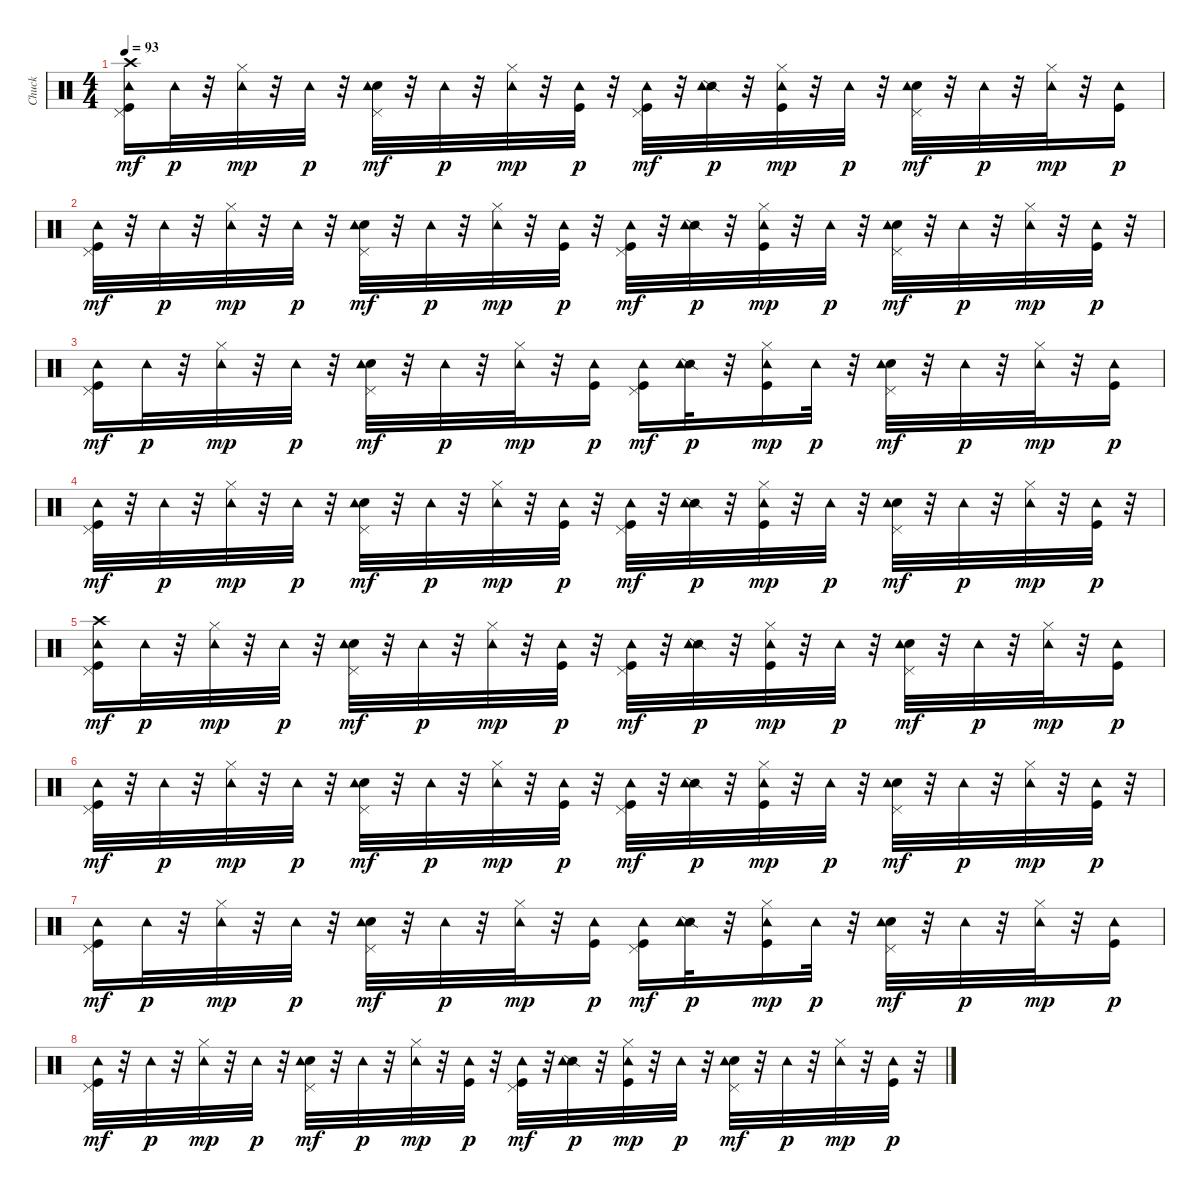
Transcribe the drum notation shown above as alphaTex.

\track ("Chuck" "Chuck") {instrument percussion}
\staff {score}
\articulation defaults
\ts (4 4)
\tempo 93
\clef neutral
\ks c
("Kick (hit)" "Pedal Hi-Hat (hit)" "Crash high (hit)" "Tambourine (hit)").16{dy mf} "Tambourine (hit)".32{dy p} r.32 ("Hi-Hat (closed)" "Tambourine (hit)").32{dy mp} r.32 "Tambourine (hit)".32{dy p} r.32 ("Electric Snare (hit)" "Pedal Hi-Hat (hit)" "Tambourine (hit)").32{dy mf} r.32 "Tambourine (hit)".32{dy p} r.32 ("Hi-Hat (closed)" "Tambourine (hit)").32{dy mp} r.32 ("Kick (hit)" "Tambourine (hit)").32{dy p} r.32 ("Kick (hit)" "Pedal Hi-Hat (hit)" "Tambourine (hit)").32{dy mf} r.32 ("Snare (side stick) 2" "Tambourine (hit)").32{dy p} r.32 ("Kick (hit)" "Hi-Hat (closed)" "Tambourine (hit)").32{dy mp} r.32 "Tambourine (hit)".32{dy p} r.32 ("Electric Snare (hit)" "Pedal Hi-Hat (hit)" "Tambourine (hit)").32{dy mf} r.32 "Tambourine (hit)".32{dy p} r.32 ("Hi-Hat (closed)" "Tambourine (hit)").32{dy mp} r.32 ("Kick (hit)" "Tambourine (hit)").16{dy p} |
("Kick (hit)" "Pedal Hi-Hat (hit)" "Tambourine (hit)").32{dy mf} r.32 "Tambourine (hit)".32{dy p} r.32 ("Hi-Hat (closed)" "Tambourine (hit)").32{dy mp} r.32 "Tambourine (hit)".32{dy p} r.32 ("Electric Snare (hit)" "Pedal Hi-Hat (hit)" "Tambourine (hit)").32{dy mf} r.32 "Tambourine (hit)".32{dy p} r.32 ("Hi-Hat (closed)" "Tambourine (hit)").32{dy mp} r.32 ("Kick (hit)" "Tambourine (hit)").32{dy p} r.32 ("Kick (hit)" "Pedal Hi-Hat (hit)" "Tambourine (hit)").32{dy mf} r.32 ("Snare (side stick) 2" "Tambourine (hit)").32{dy p} r.32 ("Kick (hit)" "Hi-Hat (closed)" "Tambourine (hit)").32{dy mp} r.32 "Tambourine (hit)".32{dy p} r.32 ("Electric Snare (hit)" "Pedal Hi-Hat (hit)" "Tambourine (hit)").32{dy mf} r.32 "Tambourine (hit)".32{dy p} r.32 ("Hi-Hat (closed)" "Tambourine (hit)").32{dy mp} r.32 ("Kick (hit)" "Tambourine (hit)").32{dy p} r.32 |
("Kick (hit)" "Pedal Hi-Hat (hit)" "Tambourine (hit)").16{dy mf} "Tambourine (hit)".32{dy p} r.32 ("Hi-Hat (closed)" "Tambourine (hit)").32{dy mp} r.32 "Tambourine (hit)".32{dy p} r.32 ("Electric Snare (hit)" "Pedal Hi-Hat (hit)" "Tambourine (hit)").32{dy mf} r.32 "Tambourine (hit)".32{dy p} r.32 ("Hi-Hat (closed)" "Tambourine (hit)").32{dy mp} r.32 ("Kick (hit)" "Tambourine (hit)").16{dy p} ("Kick (hit)" "Pedal Hi-Hat (hit)" "Tambourine (hit)").16{dy mf} ("Snare (side stick) 2" "Tambourine (hit)").32{dy p} r.32 ("Kick (hit)" "Hi-Hat (closed)" "Tambourine (hit)").16{dy mp} "Tambourine (hit)".32{dy p} r.32 ("Electric Snare (hit)" "Pedal Hi-Hat (hit)" "Tambourine (hit)").32{dy mf} r.32 "Tambourine (hit)".32{dy p} r.32 ("Hi-Hat (closed)" "Tambourine (hit)").32{dy mp} r.32 ("Kick (hit)" "Tambourine (hit)").16{dy p} |
("Kick (hit)" "Pedal Hi-Hat (hit)" "Tambourine (hit)").32{dy mf} r.32 "Tambourine (hit)".32{dy p} r.32 ("Hi-Hat (closed)" "Tambourine (hit)").32{dy mp} r.32 "Tambourine (hit)".32{dy p} r.32 ("Electric Snare (hit)" "Pedal Hi-Hat (hit)" "Tambourine (hit)").32{dy mf} r.32 "Tambourine (hit)".32{dy p} r.32 ("Hi-Hat (closed)" "Tambourine (hit)").32{dy mp} r.32 ("Kick (hit)" "Tambourine (hit)").32{dy p} r.32 ("Kick (hit)" "Pedal Hi-Hat (hit)" "Tambourine (hit)").32{dy mf} r.32 ("Snare (side stick) 2" "Tambourine (hit)").32{dy p} r.32 ("Kick (hit)" "Hi-Hat (closed)" "Tambourine (hit)").32{dy mp} r.32 "Tambourine (hit)".32{dy p} r.32 ("Electric Snare (hit)" "Pedal Hi-Hat (hit)" "Tambourine (hit)").32{dy mf} r.32 "Tambourine (hit)".32{dy p} r.32 ("Hi-Hat (closed)" "Tambourine (hit)").32{dy mp} r.32 ("Kick (hit)" "Tambourine (hit)").32{dy p} r.32 |
("Kick (hit)" "Pedal Hi-Hat (hit)" "Crash high (hit)" "Tambourine (hit)").16{dy mf} "Tambourine (hit)".32{dy p} r.32 ("Hi-Hat (closed)" "Tambourine (hit)").32{dy mp} r.32 "Tambourine (hit)".32{dy p} r.32 ("Electric Snare (hit)" "Pedal Hi-Hat (hit)" "Tambourine (hit)").32{dy mf} r.32 "Tambourine (hit)".32{dy p} r.32 ("Hi-Hat (closed)" "Tambourine (hit)").32{dy mp} r.32 ("Kick (hit)" "Tambourine (hit)").32{dy p} r.32 ("Kick (hit)" "Pedal Hi-Hat (hit)" "Tambourine (hit)").32{dy mf} r.32 ("Snare (side stick) 2" "Tambourine (hit)").32{dy p} r.32 ("Kick (hit)" "Hi-Hat (closed)" "Tambourine (hit)").32{dy mp} r.32 "Tambourine (hit)".32{dy p} r.32 ("Electric Snare (hit)" "Pedal Hi-Hat (hit)" "Tambourine (hit)").32{dy mf} r.32 "Tambourine (hit)".32{dy p} r.32 ("Hi-Hat (closed)" "Tambourine (hit)").32{dy mp} r.32 ("Kick (hit)" "Tambourine (hit)").16{dy p} |
("Kick (hit)" "Pedal Hi-Hat (hit)" "Tambourine (hit)").32{dy mf} r.32 "Tambourine (hit)".32{dy p} r.32 ("Hi-Hat (closed)" "Tambourine (hit)").32{dy mp} r.32 "Tambourine (hit)".32{dy p} r.32 ("Electric Snare (hit)" "Pedal Hi-Hat (hit)" "Tambourine (hit)").32{dy mf} r.32 "Tambourine (hit)".32{dy p} r.32 ("Hi-Hat (closed)" "Tambourine (hit)").32{dy mp} r.32 ("Kick (hit)" "Tambourine (hit)").32{dy p} r.32 ("Kick (hit)" "Pedal Hi-Hat (hit)" "Tambourine (hit)").32{dy mf} r.32 ("Snare (side stick) 2" "Tambourine (hit)").32{dy p} r.32 ("Kick (hit)" "Hi-Hat (closed)" "Tambourine (hit)").32{dy mp} r.32 "Tambourine (hit)".32{dy p} r.32 ("Electric Snare (hit)" "Pedal Hi-Hat (hit)" "Tambourine (hit)").32{dy mf} r.32 "Tambourine (hit)".32{dy p} r.32 ("Hi-Hat (closed)" "Tambourine (hit)").32{dy mp} r.32 ("Kick (hit)" "Tambourine (hit)").32{dy p} r.32 |
("Kick (hit)" "Pedal Hi-Hat (hit)" "Tambourine (hit)").16{dy mf} "Tambourine (hit)".32{dy p} r.32 ("Hi-Hat (closed)" "Tambourine (hit)").32{dy mp} r.32 "Tambourine (hit)".32{dy p} r.32 ("Electric Snare (hit)" "Pedal Hi-Hat (hit)" "Tambourine (hit)").32{dy mf} r.32 "Tambourine (hit)".32{dy p} r.32 ("Hi-Hat (closed)" "Tambourine (hit)").32{dy mp} r.32 ("Kick (hit)" "Tambourine (hit)").16{dy p} ("Kick (hit)" "Pedal Hi-Hat (hit)" "Tambourine (hit)").16{dy mf} ("Snare (side stick) 2" "Tambourine (hit)").32{dy p} r.32 ("Kick (hit)" "Hi-Hat (closed)" "Tambourine (hit)").16{dy mp} "Tambourine (hit)".32{dy p} r.32 ("Electric Snare (hit)" "Pedal Hi-Hat (hit)" "Tambourine (hit)").32{dy mf} r.32 "Tambourine (hit)".32{dy p} r.32 ("Hi-Hat (closed)" "Tambourine (hit)").32{dy mp} r.32 ("Kick (hit)" "Tambourine (hit)").16{dy p} |
("Kick (hit)" "Pedal Hi-Hat (hit)" "Tambourine (hit)").32{dy mf} r.32 "Tambourine (hit)".32{dy p} r.32 ("Hi-Hat (closed)" "Tambourine (hit)").32{dy mp} r.32 "Tambourine (hit)".32{dy p} r.32 ("Electric Snare (hit)" "Pedal Hi-Hat (hit)" "Tambourine (hit)").32{dy mf} r.32 "Tambourine (hit)".32{dy p} r.32 ("Hi-Hat (closed)" "Tambourine (hit)").32{dy mp} r.32 ("Kick (hit)" "Tambourine (hit)").32{dy p} r.32 ("Kick (hit)" "Pedal Hi-Hat (hit)" "Tambourine (hit)").32{dy mf} r.32 ("Snare (side stick) 2" "Tambourine (hit)").32{dy p} r.32 ("Kick (hit)" "Hi-Hat (closed)" "Tambourine (hit)").32{dy mp} r.32 "Tambourine (hit)".32{dy p} r.32 ("Electric Snare (hit)" "Pedal Hi-Hat (hit)" "Tambourine (hit)").32{dy mf} r.32 "Tambourine (hit)".32{dy p} r.32 ("Hi-Hat (closed)" "Tambourine (hit)").32{dy mp} r.32 ("Kick (hit)" "Tambourine (hit)").32{dy p} r.32
